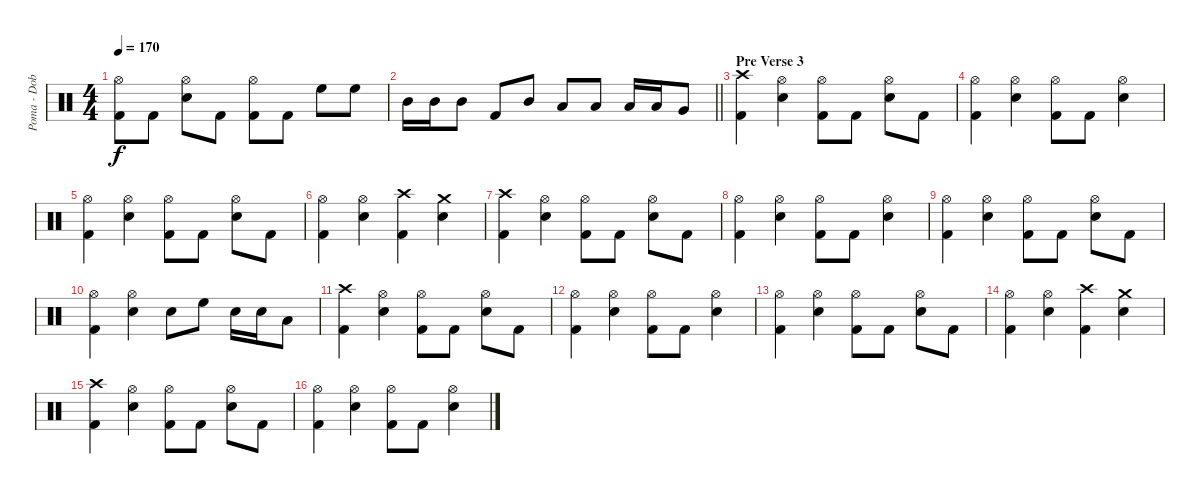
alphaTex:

\track ("Poma - Dob" "Poma - Dob") {instrument percussion}
\staff {score}
\articulation defaults
\ts (4 4)
\tempo 170
\clef neutral
\ks c
("Hi-Hat (open)" "Kick (hit) 2").8{dy f} "Kick (hit) 2".8 ("Hi-Hat (open)" "Electric Snare (hit)").8 "Kick (hit) 2".8 ("Hi-Hat (open)" "Kick (hit) 2").8 "Kick (hit) 2".8 "High Floor Tom (hit)".8 "High Floor Tom (hit)".8 |
\barLineRight lightlight "Mid Tom (hit)".16 "Mid Tom (hit)".16 "Mid Tom (hit)".8 "Kick (hit) 2".8 "Mid Tom (hit)".8 "Low Tom (hit)".8 "Low Tom (hit)".8 "Low Tom (hit)".16 "Low Tom (hit)".16 "Very Low Tom (hit)".8
|
\section ("" "Pre Verse 3")
("Crash high (hit)" "Kick (hit) 2").4 ("Hi-Hat (open)" "Electric Snare (hit)").4 ("Hi-Hat (open)" "Kick (hit) 2").8 "Kick (hit) 2".8 ("Hi-Hat (open)" "Electric Snare (hit)").8 "Kick (hit) 2".8 |
("Hi-Hat (open)" "Kick (hit) 2").4 ("Hi-Hat (open)" "Electric Snare (hit)").4 ("Hi-Hat (open)" "Kick (hit) 2").8 "Kick (hit) 2".8 ("Hi-Hat (open)" "Electric Snare (hit)").4 |
("Hi-Hat (open)" "Kick (hit) 2").4 ("Hi-Hat (open)" "Electric Snare (hit)").4 ("Hi-Hat (open)" "Kick (hit) 2").8 "Kick (hit) 2".8 ("Hi-Hat (open)" "Electric Snare (hit)").8 "Kick (hit) 2".8 |
("Hi-Hat (open)" "Kick (hit) 2").4 ("Hi-Hat (open)" "Electric Snare (hit)").4 ("Crash high (hit)" "Kick (hit) 2").4 ("Crash medium (hit)" "Electric Snare (hit)").4 |
("Crash high (hit)" "Kick (hit) 2").4 ("Hi-Hat (open)" "Electric Snare (hit)").4 ("Hi-Hat (open)" "Kick (hit) 2").8 "Kick (hit) 2".8 ("Hi-Hat (open)" "Electric Snare (hit)").8 "Kick (hit) 2".8 |
("Hi-Hat (open)" "Kick (hit) 2").4 ("Hi-Hat (open)" "Electric Snare (hit)").4 ("Hi-Hat (open)" "Kick (hit) 2").8 "Kick (hit) 2".8 ("Hi-Hat (open)" "Electric Snare (hit)").4 |
("Hi-Hat (open)" "Kick (hit) 2").4 ("Hi-Hat (open)" "Electric Snare (hit)").4 ("Hi-Hat (open)" "Kick (hit) 2").8 "Kick (hit) 2".8 ("Hi-Hat (open)" "Electric Snare (hit)").8 "Kick (hit) 2".8 |
("Hi-Hat (open)" "Kick (hit) 2").4 ("Hi-Hat (open)" "Electric Snare (hit)").4 "Electric Snare (hit)".8 "High Floor Tom (hit)".8 "Electric Snare (hit)".16 "Electric Snare (hit)".16 "Low Tom (hit)".8 |
("Crash high (hit)" "Kick (hit) 2").4 ("Hi-Hat (open)" "Electric Snare (hit)").4 ("Hi-Hat (open)" "Kick (hit) 2").8 "Kick (hit) 2".8 ("Hi-Hat (open)" "Electric Snare (hit)").8 "Kick (hit) 2".8 |
("Hi-Hat (open)" "Kick (hit) 2").4 ("Hi-Hat (open)" "Electric Snare (hit)").4 ("Hi-Hat (open)" "Kick (hit) 2").8 "Kick (hit) 2".8 ("Hi-Hat (open)" "Electric Snare (hit)").4 |
("Hi-Hat (open)" "Kick (hit) 2").4 ("Hi-Hat (open)" "Electric Snare (hit)").4 ("Hi-Hat (open)" "Kick (hit) 2").8 "Kick (hit) 2".8 ("Hi-Hat (open)" "Electric Snare (hit)").8 "Kick (hit) 2".8 |
("Hi-Hat (open)" "Kick (hit) 2").4 ("Hi-Hat (open)" "Electric Snare (hit)").4 ("Crash high (hit)" "Kick (hit) 2").4 ("Crash medium (hit)" "Electric Snare (hit)").4 |
("Crash high (hit)" "Kick (hit) 2").4 ("Hi-Hat (open)" "Electric Snare (hit)").4 ("Hi-Hat (open)" "Kick (hit) 2").8 "Kick (hit) 2".8 ("Hi-Hat (open)" "Electric Snare (hit)").8 "Kick (hit) 2".8 |
("Hi-Hat (open)" "Kick (hit) 2").4 ("Hi-Hat (open)" "Electric Snare (hit)").4 ("Hi-Hat (open)" "Kick (hit) 2").8 "Kick (hit) 2".8 ("Hi-Hat (open)" "Electric Snare (hit)").4
